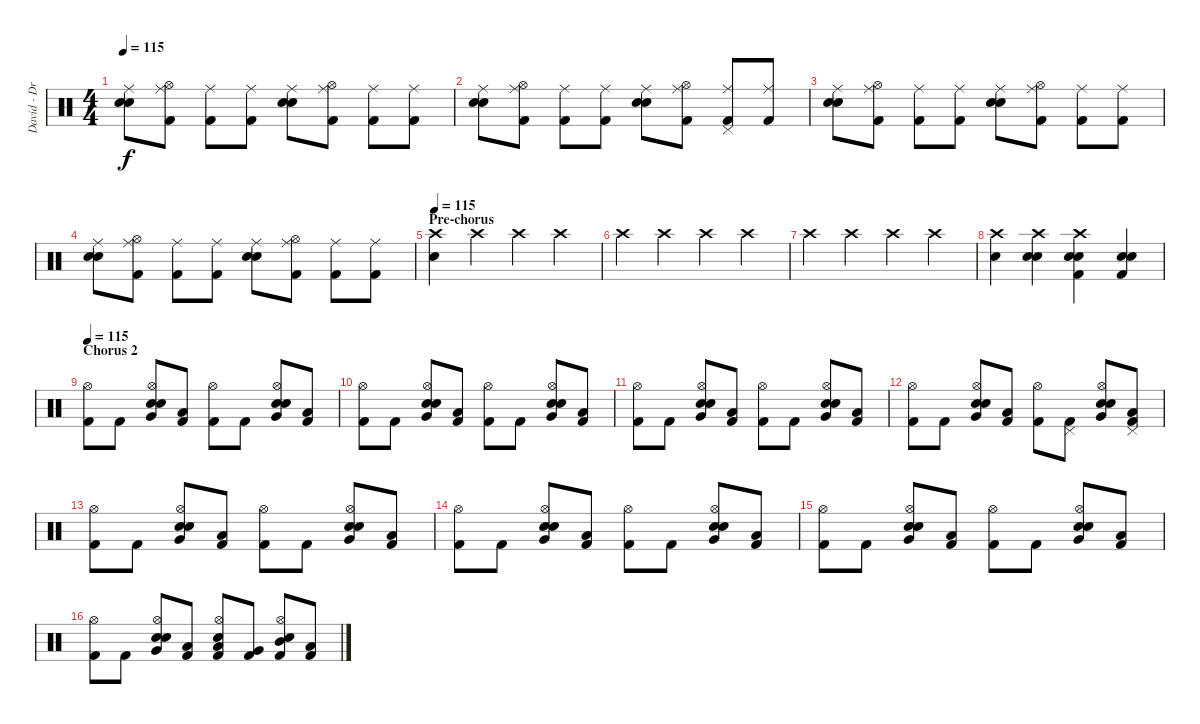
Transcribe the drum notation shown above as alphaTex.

\track ("David - Drums" "David - Dr") {instrument percussion}
\staff {score}
\articulation defaults
\ts (4 4)
\tempo 115
\clef neutral
\ks c
("Ride (middle)" "Electric Snare (hit)" "Snare (hit) 2").8{dy f} ("Ride (middle)" "Hi-Hat (open)" "Kick (hit) 2").8 ("Ride (middle)" "Kick (hit) 2").8 ("Ride (middle)" "Kick (hit) 2").8 ("Ride (middle)" "Electric Snare (hit)" "Snare (hit) 2").8 ("Ride (middle)" "Hi-Hat (open)" "Kick (hit) 2").8 ("Ride (middle)" "Kick (hit) 2").8 ("Ride (middle)" "Kick (hit) 2").8 |
("Ride (middle)" "Electric Snare (hit)" "Snare (hit) 2").8 ("Ride (middle)" "Hi-Hat (open)" "Kick (hit) 2").8 ("Ride (middle)" "Kick (hit) 2").8 ("Ride (middle)" "Kick (hit) 2").8 ("Ride (middle)" "Electric Snare (hit)" "Snare (hit) 2").8 ("Ride (middle)" "Hi-Hat (open)" "Kick (hit) 2").8 ("Ride (middle)" "Pedal Hi-Hat (hit)" "Kick (hit) 2").8 ("Ride (middle)" "Kick (hit) 2").8 |
("Ride (middle)" "Electric Snare (hit)" "Snare (hit) 2").8 ("Ride (middle)" "Hi-Hat (open)" "Kick (hit) 2").8 ("Ride (middle)" "Kick (hit) 2").8 ("Ride (middle)" "Kick (hit) 2").8 ("Ride (middle)" "Electric Snare (hit)" "Snare (hit) 2").8 ("Ride (middle)" "Hi-Hat (open)" "Kick (hit) 2").8 ("Ride (middle)" "Kick (hit) 2").8 ("Ride (middle)" "Kick (hit) 2").8 |
("Ride (middle)" "Electric Snare (hit)" "Snare (hit) 2").8 ("Ride (middle)" "Hi-Hat (open)" "Kick (hit) 2").8 ("Ride (middle)" "Kick (hit) 2").8 ("Ride (middle)" "Kick (hit) 2").8 ("Ride (middle)" "Electric Snare (hit)" "Snare (hit) 2").8 ("Ride (middle)" "Hi-Hat (open)" "Kick (hit) 2").8 ("Ride (middle)" "Kick (hit) 2").8 ("Ride (middle)" "Kick (hit) 2").8 |
\section ("" "Pre-chorus")
\tempo 115
("Crash high (hit)" "Electric Snare (hit)").4 "Crash high (hit)".4 "Crash high (hit)".4 "Crash high (hit)".4 |
"Crash high (hit)".4 "Crash high (hit)".4 "Crash high (hit)".4 "Crash high (hit)".4 |
"Crash high (hit)".4 "Crash high (hit)".4 "Crash high (hit)".4 "Crash high (hit)".4 |
("Crash high (hit)" "Electric Snare (hit)").4 ("Crash high (hit)" "Electric Snare (hit)" "Snare (hit) 2").4{bd 240} ("Crash high (hit)" "Electric Snare (hit)" "Snare (hit) 2" "Kick (hit) 2").4 ("Electric Snare (hit)" "Snare (hit) 2" "Kick (hit) 2").4 |
\section ("" "Chorus 2")
\tempo 115
("Hi-Hat (open)" "Kick (hit) 2").8 "Kick (hit) 2".8 ("Hi-Hat (open)" "Very Low Tom (hit)" "Electric Snare (hit)" "Snare (hit) 2").8 ("Low Floor Tom (hit)" "Kick (hit) 2").8 ("Hi-Hat (open)" "Kick (hit) 2").8 "Kick (hit) 2".8 ("Hi-Hat (open)" "Very Low Tom (hit)" "Electric Snare (hit)" "Snare (hit) 2").8 ("Low Floor Tom (hit)" "Kick (hit) 2").8 |
("Hi-Hat (open)" "Kick (hit) 2").8 "Kick (hit) 2".8 ("Hi-Hat (open)" "Very Low Tom (hit)" "Electric Snare (hit)" "Snare (hit) 2").8 ("Low Floor Tom (hit)" "Kick (hit) 2").8 ("Hi-Hat (open)" "Kick (hit) 2").8 "Kick (hit) 2".8 ("Hi-Hat (open)" "Very Low Tom (hit)" "Electric Snare (hit)" "Snare (hit) 2").8 ("Low Floor Tom (hit)" "Kick (hit) 2").8 |
("Hi-Hat (open)" "Kick (hit) 2").8 "Kick (hit) 2".8 ("Hi-Hat (open)" "Very Low Tom (hit)" "Electric Snare (hit)" "Snare (hit) 2").8 ("Low Floor Tom (hit)" "Kick (hit) 2").8 ("Hi-Hat (open)" "Kick (hit) 2").8 "Kick (hit) 2".8 ("Hi-Hat (open)" "Very Low Tom (hit)" "Electric Snare (hit)" "Snare (hit) 2").8 ("Low Floor Tom (hit)" "Kick (hit) 2").8 |
("Hi-Hat (open)" "Kick (hit) 2").8 "Kick (hit) 2".8 ("Hi-Hat (open)" "Very Low Tom (hit)" "Electric Snare (hit)" "Snare (hit) 2").8 ("Low Floor Tom (hit)" "Kick (hit) 2").8 ("Hi-Hat (open)" "Kick (hit) 2").8 ("Pedal Hi-Hat (hit)" "Kick (hit) 2").8 ("Hi-Hat (open)" "Very Low Tom (hit)" "Electric Snare (hit)" "Snare (hit) 2").8 ("Pedal Hi-Hat (hit)" "Low Floor Tom (hit)" "Kick (hit) 2").8 |
("Hi-Hat (open)" "Kick (hit) 2").8 "Kick (hit) 2".8 ("Hi-Hat (open)" "Very Low Tom (hit)" "Electric Snare (hit)" "Snare (hit) 2").8 ("Low Floor Tom (hit)" "Kick (hit) 2").8 ("Hi-Hat (open)" "Kick (hit) 2").8 "Kick (hit) 2".8 ("Hi-Hat (open)" "Very Low Tom (hit)" "Electric Snare (hit)" "Snare (hit) 2").8 ("Low Floor Tom (hit)" "Kick (hit) 2").8 |
("Hi-Hat (open)" "Kick (hit) 2").8 "Kick (hit) 2".8 ("Hi-Hat (open)" "Very Low Tom (hit)" "Electric Snare (hit)" "Snare (hit) 2").8 ("Low Floor Tom (hit)" "Kick (hit) 2").8 ("Hi-Hat (open)" "Kick (hit) 2").8 "Kick (hit) 2".8 ("Hi-Hat (open)" "Very Low Tom (hit)" "Electric Snare (hit)" "Snare (hit) 2").8 ("Low Floor Tom (hit)" "Kick (hit) 2").8 |
("Hi-Hat (open)" "Kick (hit) 2").8 "Kick (hit) 2".8 ("Hi-Hat (open)" "Very Low Tom (hit)" "Electric Snare (hit)" "Snare (hit) 2").8 ("Low Floor Tom (hit)" "Kick (hit) 2").8 ("Hi-Hat (open)" "Kick (hit) 2").8 "Kick (hit) 2".8 ("Hi-Hat (open)" "Very Low Tom (hit)" "Electric Snare (hit)" "Snare (hit) 2").8 ("Low Floor Tom (hit)" "Kick (hit) 2").8 |
("Hi-Hat (open)" "Kick (hit) 2").8 "Kick (hit) 2".8 ("Hi-Hat (open)" "Very Low Tom (hit)" "Electric Snare (hit)" "Snare (hit) 2").8 ("Low Floor Tom (hit)" "Kick (hit) 2").8 ("Hi-Hat (open)" "Low Tom (hit)" "Electric Snare (hit)" "Kick (hit) 2").8 ("Very Low Tom (hit)" "Kick (hit) 2").8 ("Hi-Hat (open)" "Mid Tom (hit)" "Electric Snare (hit)" "Kick (hit) 2").8 ("Low Tom (hit)" "Kick (hit) 2").8
